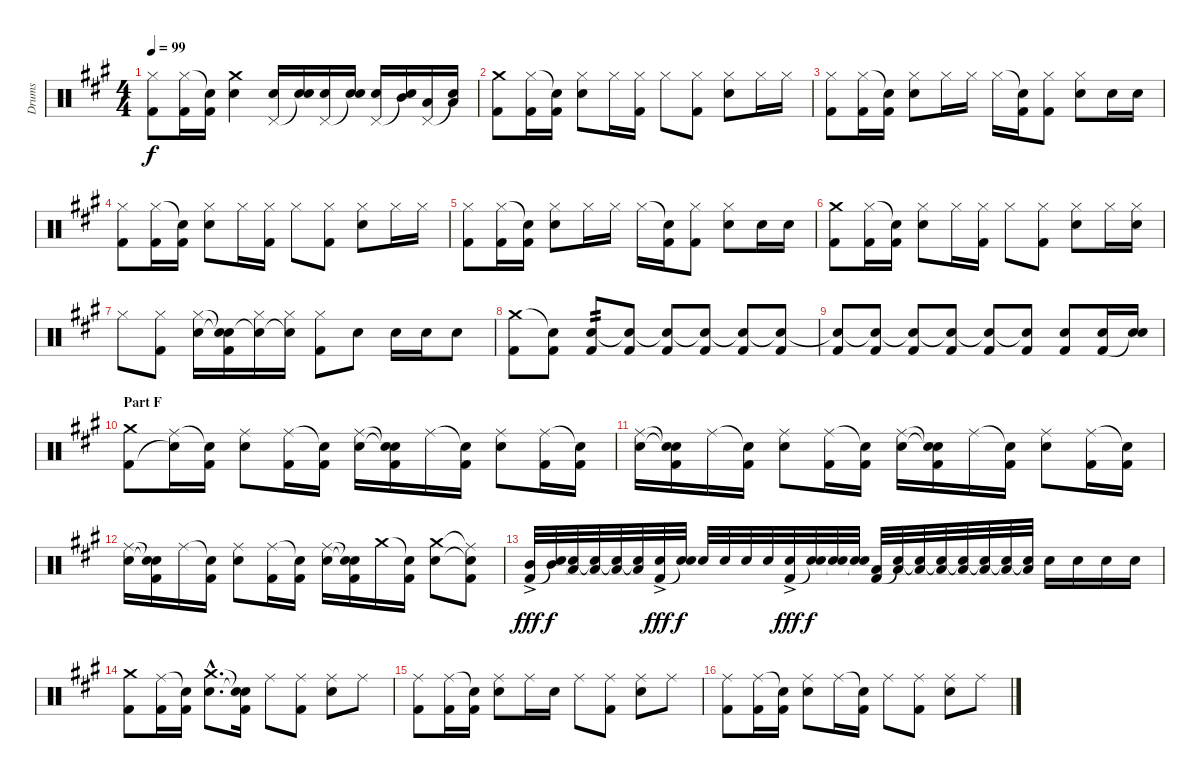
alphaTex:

\track ("Drums" "Drums") {instrument percussion}
\staff {score}
\articulation defaults
\ts (4 4)
\tempo 99
\clef neutral
\ks a
("Hi-Hat (closed)" "Kick (hit) 2").8{dy f} ("Hi-Hat (closed)" "Kick (hit) 2").16 ("Snare (hit)"{t} "Kick (hit) 2").16 ("Crash medium (hit)" "Electric Snare (hit)").4 ("Pedal Hi-Hat (hit)" "Electric Snare (hit)").16 ("Snare (hit)"{t} "Electric Snare (hit)").16 ("Pedal Hi-Hat (hit)" "Electric Snare (hit)").16 ("Snare (hit)"{t} "Electric Snare (hit)").16 ("Pedal Hi-Hat (hit)" "Electric Snare (hit)").16 ("Snare (hit)"{t} "Mid Tom (hit)").16 ("Pedal Hi-Hat (hit)" "Low Tom (hit)").16 ("Snare (hit)"{t} "Low Floor Tom (hit)").16 |
("Crash medium (hit)" "Kick (hit) 2").8 ("Hi-Hat (closed)" "Kick (hit) 2").16 ("Snare (hit)"{t} "Kick (hit) 2").16 ("Hi-Hat (closed)" "Electric Snare (hit)").8 "Hi-Hat (closed)".16 ("Hi-Hat (closed)" "Kick (hit) 2").16 "Hi-Hat (closed)".8 ("Hi-Hat (closed)" "Kick (hit) 2").8 ("Hi-Hat (closed)" "Electric Snare (hit)").8 "Hi-Hat (closed)".16 "Hi-Hat (closed)".16 |
("Hi-Hat (closed)" "Kick (hit) 2").8 ("Hi-Hat (closed)" "Kick (hit) 2").16 ("Snare (hit)"{t} "Kick (hit) 2").16 ("Hi-Hat (closed)" "Electric Snare (hit)").8 "Hi-Hat (closed)".16 "Hi-Hat (closed)".16 "Hi-Hat (closed)".16 ("Snare (hit)"{t} "Kick (hit) 2").16 ("Hi-Hat (closed)" "Kick (hit) 2").8 ("Hi-Hat (closed)" "Electric Snare (hit)").8 "Electric Snare (hit)".16 "Electric Snare (hit)".16 |
("Hi-Hat (closed)" "Kick (hit) 2").8 ("Hi-Hat (closed)" "Kick (hit) 2").16 ("Snare (hit)"{t} "Kick (hit) 2").16 ("Hi-Hat (closed)" "Electric Snare (hit)").8 "Hi-Hat (closed)".16 ("Hi-Hat (closed)" "Kick (hit) 2").16 "Hi-Hat (closed)".8 ("Hi-Hat (closed)" "Kick (hit) 2").8 ("Hi-Hat (closed)" "Electric Snare (hit)").8 "Hi-Hat (closed)".16 "Hi-Hat (closed)".16 |
("Hi-Hat (closed)" "Kick (hit) 2").8 ("Hi-Hat (closed)" "Kick (hit) 2").16 ("Snare (hit)"{t} "Kick (hit) 2").16 ("Hi-Hat (closed)" "Electric Snare (hit)").8 "Hi-Hat (closed)".16 "Hi-Hat (closed)".16 "Hi-Hat (closed)".16 ("Snare (hit)"{t} "Kick (hit) 2").16 ("Hi-Hat (closed)" "Kick (hit) 2").8 ("Hi-Hat (closed)" "Electric Snare (hit)").8 "Electric Snare (hit)".16 "Electric Snare (hit)".16 |
("Crash medium (hit)" "Kick (hit) 2").8 ("Hi-Hat (closed)" "Kick (hit) 2").16 ("Snare (hit)"{t} "Kick (hit) 2").16 ("Hi-Hat (closed)" "Electric Snare (hit)").8 "Hi-Hat (closed)".16 ("Hi-Hat (closed)" "Kick (hit) 2").16 "Hi-Hat (closed)".8 ("Hi-Hat (closed)" "Kick (hit) 2").8 ("Hi-Hat (closed)" "Electric Snare (hit)").8 "Hi-Hat (closed)".16 ("Hi-Hat (closed)" "Electric Snare (hit)").16 |
"Hi-Hat (closed)".8 ("Hi-Hat (closed)" "Kick (hit) 2").8 ("Hi-Hat (closed)" "Electric Snare (hit)").16 ("Snare (hit)"{t} "Snare (hit)"{t} "Kick (hit) 2").16 ("Hi-Hat (closed)" "Snare (hit)"{t}).16 ("Hi-Hat (closed)" "Snare (hit)"{t}).16 ("Hi-Hat (closed)" "Kick (hit) 2").8 "Electric Snare (hit)".8 "Electric Snare (hit)".16 "Electric Snare (hit)".16 "Electric Snare (hit)".8 |
("Crash medium (hit)" "Kick (hit) 2").8 ("Snare (hit)"{t} "Kick (hit) 2").8 ("Electric Snare (hit)" "Kick (hit) 2").8{tp 2} ("Snare (hit)"{t} "Kick (hit) 2").8 ("Snare (hit)"{t} "Kick (hit) 2").8 ("Snare (hit)"{t} "Kick (hit) 2").8 ("Snare (hit)"{t} "Kick (hit) 2").8 ("Snare (hit)"{t} "Kick (hit) 2").8 |
("Snare (hit)"{t} "Kick (hit) 2").8 ("Snare (hit)"{t} "Kick (hit) 2").8 ("Snare (hit)"{t} "Kick (hit) 2").8 ("Snare (hit)"{t} "Kick (hit) 2").8 ("Snare (hit)"{t} "Kick (hit) 2").8 ("Snare (hit)"{t} "Kick (hit) 2").8 ("Electric Snare (hit)" "Kick (hit) 2").8 ("Electric Snare (hit)" "Kick (hit) 2").16 ("Electric Snare (hit)" "Snare (hit)"{t}).16 |
\section ("" "Part F")
("Crash medium (hit)" "Kick (hit) 2").8 ("Ride (middle)" "Snare (hit)"{t}).16 ("Snare (hit)"{t} "Kick (hit) 2").16 ("Ride (middle)" "Electric Snare (hit)").8 ("Ride (middle)" "Kick (hit) 2").16 ("Snare (hit)"{t} "Kick (hit) 2").16 ("Ride (middle)" "Electric Snare (hit)").16 ("Snare (hit)"{t} "Snare (hit)"{t} "Kick (hit) 2").16 "Ride (middle)".16 ("Snare (hit)"{t} "Kick (hit) 2").16 ("Ride (middle)" "Electric Snare (hit)").8 ("Ride (middle)" "Kick (hit) 2").16 ("Snare (hit)"{t} "Kick (hit) 2").16 |
("Ride (middle)" "Electric Snare (hit)").16 ("Snare (hit)"{t} "Snare (hit)"{t} "Kick (hit) 2").16 "Ride (middle)".16 ("Snare (hit)"{t} "Kick (hit) 2").16 ("Ride (middle)" "Electric Snare (hit)").8 ("Ride (middle)" "Kick (hit) 2").16 ("Snare (hit)"{t} "Kick (hit) 2").16 ("Ride (middle)" "Electric Snare (hit)").16 ("Snare (hit)"{t} "Snare (hit)"{t} "Kick (hit) 2").16 "Ride (middle)".16 ("Snare (hit)"{t} "Kick (hit) 2").16 ("Ride (middle)" "Electric Snare (hit)").8 ("Ride (middle)" "Kick (hit) 2").16 ("Snare (hit)"{t} "Kick (hit) 2").16 |
("Ride (middle)" "Electric Snare (hit)").16 ("Snare (hit)"{t} "Snare (hit)"{t} "Kick (hit) 2").16 "Ride (middle)".16 ("Snare (hit)"{t} "Kick (hit) 2").16 ("Ride (middle)" "Electric Snare (hit)").8 ("Ride (middle)" "Kick (hit) 2").16 ("Snare (hit)"{t} "Kick (hit) 2").16 ("Ride (middle)" "Electric Snare (hit)").16 ("Snare (hit)"{t} "Snare (hit)"{t} "Kick (hit) 2").16 "Crash medium (hit)".16 ("Snare (hit)"{t} "Kick (hit) 2").16 ("Crash medium (hit)" "Electric Snare (hit)").8 ("Ride (middle)"{t} "Snare (hit)"{t} "Kick (hit) 2").8 |
("Mid Tom (hit)"{ac} "Kick (hit) 2").32{dy fff} ("Mid Tom (hit)" "Snare (hit)"{t}).32{dy f} ("Low Tom (hit)" "Snare (hit)"{t}).32 ("Low Tom (hit)" "Snare (hit)"{t}).32 ("Low Floor Tom (hit)" "Snare (hit)"{t}).32 ("Low Floor Tom (hit)" "Snare (hit)"{t}).32 ("Electric Snare (hit)"{ac} "Kick (hit) 2").32{dy fff} ("Electric Snare (hit)" "Snare (hit)"{t}).32{dy f} "Electric Snare (hit)".32 "Electric Snare (hit)".32 "Electric Snare (hit)".32 "Electric Snare (hit)".32 ("Electric Snare (hit)"{ac} "Kick (hit) 2").32{dy fff} ("Electric Snare (hit)" "Snare (hit)"{t}).32{dy f} ("Electric Snare (hit)" "Snare (hit)"{t}).32 ("Electric Snare (hit)" "Snare (hit)"{t}).32 ("Low Floor Tom (hit)" "Kick (hit) 2").32 ("Low Floor Tom (hit)" "Snare (hit)"{t}).32 ("Low Floor Tom (hit)" "Snare (hit)"{t}).32 ("Low Floor Tom (hit)" "Snare (hit)"{t}).32 ("Low Floor Tom (hit)" "Snare (hit)"{t}).32 ("Low Floor Tom (hit)" "Snare (hit)"{t}).32 ("Low Floor Tom (hit)" "Snare (hit)"{t}).32 ("Low Floor Tom (hit)" "Snare (hit)"{t}).32 "Electric Snare (hit)".16 "Electric Snare (hit)".16 "Electric Snare (hit)".16 "Electric Snare (hit)".16 |
("Crash medium (hit)" "Kick (hit) 2").8 ("Ride (middle)" "Kick (hit) 2").16 ("Snare (hit)"{t} "Kick (hit) 2").16 ("Crash medium (hit)"{hac} "Electric Snare (hit)"{hac}).8{d} ("Snare (hit)"{t} "Snare (hit)"{t} "Kick (hit) 2").16 "Ride (middle)".8 ("Ride (middle)" "Kick (hit) 2").8 ("Ride (middle)" "Electric Snare (hit)").8 "Ride (middle)".8 |
("Ride (middle)" "Kick (hit) 2").8 ("Ride (middle)" "Kick (hit) 2").16 ("Snare (hit)"{t} "Kick (hit) 2").16 ("Ride (middle)" "Electric Snare (hit)").8 "Ride (middle)".16 "Electric Snare (hit)".16 "Ride (middle)".8 ("Ride (middle)" "Kick (hit) 2").8 ("Ride (middle)" "Electric Snare (hit)").8 "Ride (middle)".8 |
("Ride (middle)" "Kick (hit) 2").8 ("Ride (middle)" "Kick (hit) 2").16 ("Snare (hit)"{t} "Kick (hit) 2").16 ("Ride (middle)" "Electric Snare (hit)").8 "Ride (middle)".16 ("Snare (hit)"{t} "Kick (hit) 2").16 "Ride (middle)".8 ("Ride (middle)" "Kick (hit) 2").8 ("Ride (middle)" "Electric Snare (hit)").8 "Ride (middle)".8
